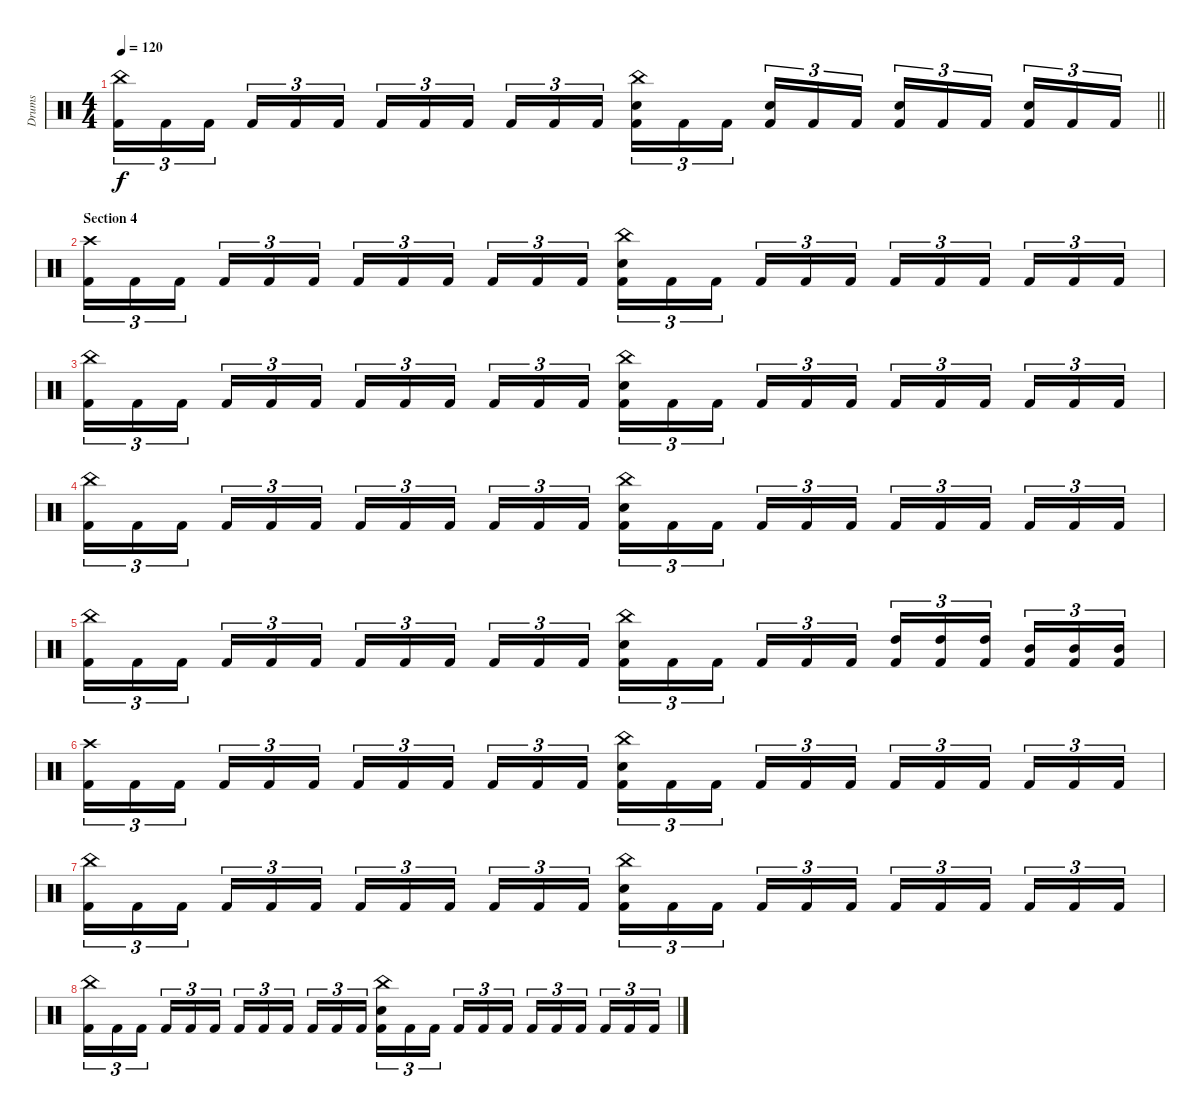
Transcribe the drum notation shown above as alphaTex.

\track ("Drums" "Drums") {instrument percussion}
\staff {score}
\articulation defaults
\ts (4 4)
\tempo 120
\clef neutral
\barLineRight lightlight
\ks c
("China (hit)" "Kick (hit) 2").16{tu (3 2) dy f} "Kick (hit) 2".16{tu (3 2)} "Kick (hit) 2".16{tu (3 2) beam splitsecondary} "Kick (hit) 2".16{tu (3 2)} "Kick (hit) 2".16{tu (3 2)} "Kick (hit) 2".16{tu (3 2)} "Kick (hit) 2".16{tu (3 2)} "Kick (hit) 2".16{tu (3 2)} "Kick (hit) 2".16{tu (3 2) beam splitsecondary} "Kick (hit) 2".16{tu (3 2)} "Kick (hit) 2".16{tu (3 2)} "Kick (hit) 2".16{tu (3 2)} ("China (hit)" "Snare (hit) 2" "Kick (hit) 2").16{tu (3 2)} "Kick (hit) 2".16{tu (3 2)} "Kick (hit) 2".16{tu (3 2) beam splitsecondary} ("Snare (hit) 2" "Kick (hit) 2").16{tu (3 2)} "Kick (hit) 2".16{tu (3 2)} "Kick (hit) 2".16{tu (3 2)} ("Snare (hit) 2" "Kick (hit) 2").16{tu (3 2)} "Kick (hit) 2".16{tu (3 2)} "Kick (hit) 2".16{tu (3 2) beam splitsecondary} ("Snare (hit) 2" "Kick (hit) 2").16{tu (3 2)} "Kick (hit) 2".16{tu (3 2)} "Kick (hit) 2".16{tu (3 2)} |
\section ("" "Section 4")
("Crash high (hit)" "Kick (hit) 2").16{tu (3 2)} "Kick (hit) 2".16{tu (3 2)} "Kick (hit) 2".16{tu (3 2) beam splitsecondary} "Kick (hit) 2".16{tu (3 2)} "Kick (hit) 2".16{tu (3 2)} "Kick (hit) 2".16{tu (3 2)} "Kick (hit) 2".16{tu (3 2)} "Kick (hit) 2".16{tu (3 2)} "Kick (hit) 2".16{tu (3 2) beam splitsecondary} "Kick (hit) 2".16{tu (3 2)} "Kick (hit) 2".16{tu (3 2)} "Kick (hit) 2".16{tu (3 2)} ("China (hit)" "Snare (hit) 2" "Kick (hit) 2").16{tu (3 2)} "Kick (hit) 2".16{tu (3 2)} "Kick (hit) 2".16{tu (3 2) beam splitsecondary} "Kick (hit) 2".16{tu (3 2)} "Kick (hit) 2".16{tu (3 2)} "Kick (hit) 2".16{tu (3 2)} "Kick (hit) 2".16{tu (3 2)} "Kick (hit) 2".16{tu (3 2)} "Kick (hit) 2".16{tu (3 2) beam splitsecondary} "Kick (hit) 2".16{tu (3 2)} "Kick (hit) 2".16{tu (3 2)} "Kick (hit) 2".16{tu (3 2)} |
("China (hit)" "Kick (hit) 2").16{tu (3 2)} "Kick (hit) 2".16{tu (3 2)} "Kick (hit) 2".16{tu (3 2) beam splitsecondary} "Kick (hit) 2".16{tu (3 2)} "Kick (hit) 2".16{tu (3 2)} "Kick (hit) 2".16{tu (3 2)} "Kick (hit) 2".16{tu (3 2)} "Kick (hit) 2".16{tu (3 2)} "Kick (hit) 2".16{tu (3 2) beam splitsecondary} "Kick (hit) 2".16{tu (3 2)} "Kick (hit) 2".16{tu (3 2)} "Kick (hit) 2".16{tu (3 2)} ("China (hit)" "Snare (hit) 2" "Kick (hit) 2").16{tu (3 2)} "Kick (hit) 2".16{tu (3 2)} "Kick (hit) 2".16{tu (3 2) beam splitsecondary} "Kick (hit) 2".16{tu (3 2)} "Kick (hit) 2".16{tu (3 2)} "Kick (hit) 2".16{tu (3 2)} "Kick (hit) 2".16{tu (3 2)} "Kick (hit) 2".16{tu (3 2)} "Kick (hit) 2".16{tu (3 2) beam splitsecondary} "Kick (hit) 2".16{tu (3 2)} "Kick (hit) 2".16{tu (3 2)} "Kick (hit) 2".16{tu (3 2)} |
("China (hit)" "Kick (hit) 2").16{tu (3 2)} "Kick (hit) 2".16{tu (3 2)} "Kick (hit) 2".16{tu (3 2) beam splitsecondary} "Kick (hit) 2".16{tu (3 2)} "Kick (hit) 2".16{tu (3 2)} "Kick (hit) 2".16{tu (3 2)} "Kick (hit) 2".16{tu (3 2)} "Kick (hit) 2".16{tu (3 2)} "Kick (hit) 2".16{tu (3 2) beam splitsecondary} "Kick (hit) 2".16{tu (3 2)} "Kick (hit) 2".16{tu (3 2)} "Kick (hit) 2".16{tu (3 2)} ("China (hit)" "Snare (hit) 2" "Kick (hit) 2").16{tu (3 2)} "Kick (hit) 2".16{tu (3 2)} "Kick (hit) 2".16{tu (3 2) beam splitsecondary} "Kick (hit) 2".16{tu (3 2)} "Kick (hit) 2".16{tu (3 2)} "Kick (hit) 2".16{tu (3 2)} "Kick (hit) 2".16{tu (3 2)} "Kick (hit) 2".16{tu (3 2)} "Kick (hit) 2".16{tu (3 2) beam splitsecondary} "Kick (hit) 2".16{tu (3 2)} "Kick (hit) 2".16{tu (3 2)} "Kick (hit) 2".16{tu (3 2)} |
("China (hit)" "Kick (hit) 2").16{tu (3 2)} "Kick (hit) 2".16{tu (3 2)} "Kick (hit) 2".16{tu (3 2) beam splitsecondary} "Kick (hit) 2".16{tu (3 2)} "Kick (hit) 2".16{tu (3 2)} "Kick (hit) 2".16{tu (3 2)} "Kick (hit) 2".16{tu (3 2)} "Kick (hit) 2".16{tu (3 2)} "Kick (hit) 2".16{tu (3 2) beam splitsecondary} "Kick (hit) 2".16{tu (3 2)} "Kick (hit) 2".16{tu (3 2)} "Kick (hit) 2".16{tu (3 2)} ("China (hit)" "Snare (hit) 2" "Kick (hit) 2").16{tu (3 2)} "Kick (hit) 2".16{tu (3 2)} "Kick (hit) 2".16{tu (3 2) beam splitsecondary} "Kick (hit) 2".16{tu (3 2)} "Kick (hit) 2".16{tu (3 2)} "Kick (hit) 2".16{tu (3 2)} ("High Tom (hit)" "Kick (hit) 2").16{tu (3 2)} ("High Tom (hit)" "Kick (hit) 2").16{tu (3 2)} ("High Tom (hit)" "Kick (hit) 2").16{tu (3 2) beam splitsecondary} ("Mid Tom (hit)" "Kick (hit) 2").16{tu (3 2)} ("Mid Tom (hit)" "Kick (hit) 2").16{tu (3 2)} ("Mid Tom (hit)" "Kick (hit) 2").16{tu (3 2)} |
("Crash high (hit)" "Kick (hit) 2").16{tu (3 2)} "Kick (hit) 2".16{tu (3 2)} "Kick (hit) 2".16{tu (3 2) beam splitsecondary} "Kick (hit) 2".16{tu (3 2)} "Kick (hit) 2".16{tu (3 2)} "Kick (hit) 2".16{tu (3 2)} "Kick (hit) 2".16{tu (3 2)} "Kick (hit) 2".16{tu (3 2)} "Kick (hit) 2".16{tu (3 2) beam splitsecondary} "Kick (hit) 2".16{tu (3 2)} "Kick (hit) 2".16{tu (3 2)} "Kick (hit) 2".16{tu (3 2)} ("China (hit)" "Snare (hit) 2" "Kick (hit) 2").16{tu (3 2)} "Kick (hit) 2".16{tu (3 2)} "Kick (hit) 2".16{tu (3 2) beam splitsecondary} "Kick (hit) 2".16{tu (3 2)} "Kick (hit) 2".16{tu (3 2)} "Kick (hit) 2".16{tu (3 2)} "Kick (hit) 2".16{tu (3 2)} "Kick (hit) 2".16{tu (3 2)} "Kick (hit) 2".16{tu (3 2) beam splitsecondary} "Kick (hit) 2".16{tu (3 2)} "Kick (hit) 2".16{tu (3 2)} "Kick (hit) 2".16{tu (3 2)} |
("China (hit)" "Kick (hit) 2").16{tu (3 2)} "Kick (hit) 2".16{tu (3 2)} "Kick (hit) 2".16{tu (3 2) beam splitsecondary} "Kick (hit) 2".16{tu (3 2)} "Kick (hit) 2".16{tu (3 2)} "Kick (hit) 2".16{tu (3 2)} "Kick (hit) 2".16{tu (3 2)} "Kick (hit) 2".16{tu (3 2)} "Kick (hit) 2".16{tu (3 2) beam splitsecondary} "Kick (hit) 2".16{tu (3 2)} "Kick (hit) 2".16{tu (3 2)} "Kick (hit) 2".16{tu (3 2)} ("China (hit)" "Snare (hit) 2" "Kick (hit) 2").16{tu (3 2)} "Kick (hit) 2".16{tu (3 2)} "Kick (hit) 2".16{tu (3 2) beam splitsecondary} "Kick (hit) 2".16{tu (3 2)} "Kick (hit) 2".16{tu (3 2)} "Kick (hit) 2".16{tu (3 2)} "Kick (hit) 2".16{tu (3 2)} "Kick (hit) 2".16{tu (3 2)} "Kick (hit) 2".16{tu (3 2) beam splitsecondary} "Kick (hit) 2".16{tu (3 2)} "Kick (hit) 2".16{tu (3 2)} "Kick (hit) 2".16{tu (3 2)} |
("China (hit)" "Kick (hit) 2").16{tu (3 2)} "Kick (hit) 2".16{tu (3 2)} "Kick (hit) 2".16{tu (3 2) beam splitsecondary} "Kick (hit) 2".16{tu (3 2)} "Kick (hit) 2".16{tu (3 2)} "Kick (hit) 2".16{tu (3 2)} "Kick (hit) 2".16{tu (3 2)} "Kick (hit) 2".16{tu (3 2)} "Kick (hit) 2".16{tu (3 2) beam splitsecondary} "Kick (hit) 2".16{tu (3 2)} "Kick (hit) 2".16{tu (3 2)} "Kick (hit) 2".16{tu (3 2)} ("China (hit)" "Snare (hit) 2" "Kick (hit) 2").16{tu (3 2)} "Kick (hit) 2".16{tu (3 2)} "Kick (hit) 2".16{tu (3 2) beam splitsecondary} "Kick (hit) 2".16{tu (3 2)} "Kick (hit) 2".16{tu (3 2)} "Kick (hit) 2".16{tu (3 2)} "Kick (hit) 2".16{tu (3 2)} "Kick (hit) 2".16{tu (3 2)} "Kick (hit) 2".16{tu (3 2) beam splitsecondary} "Kick (hit) 2".16{tu (3 2)} "Kick (hit) 2".16{tu (3 2)} "Kick (hit) 2".16{tu (3 2)}
